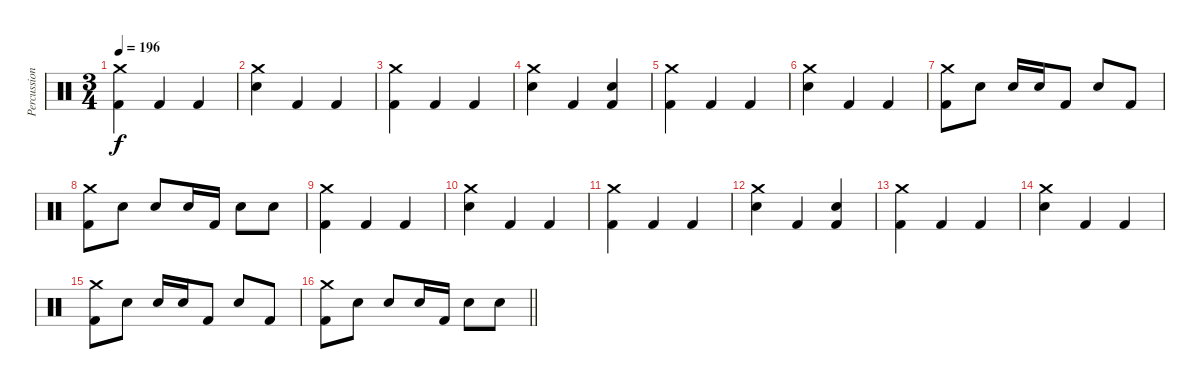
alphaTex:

\track ("Percussion" "Percussion") {instrument percussion}
\staff {score}
\articulation defaults
\ts (3 4)
\tempo 196
\clef neutral
\ks c
("Crash medium (hit)" "Kick (hit) 2").4{dy f} "Kick (hit) 2".4 "Kick (hit) 2".4 |
("Crash medium (hit)" "Electric Snare (hit)").4 "Kick (hit) 2".4 "Kick (hit) 2".4 |
("Crash medium (hit)" "Kick (hit) 2").4 "Kick (hit) 2".4 "Kick (hit) 2".4 |
("Crash medium (hit)" "Electric Snare (hit)").4 "Kick (hit) 2".4 ("Electric Snare (hit)" "Kick (hit) 2").4 |
("Crash medium (hit)" "Kick (hit) 2").4 "Kick (hit) 2".4 "Kick (hit) 2".4 |
("Crash medium (hit)" "Electric Snare (hit)").4 "Kick (hit) 2".4 "Kick (hit) 2".4 |
("Crash medium (hit)" "Kick (hit) 2").8 "Electric Snare (hit)".8 "Electric Snare (hit)".16 "Electric Snare (hit)".16 "Kick (hit) 2".8 "Electric Snare (hit)".8 "Kick (hit) 2".8 |
("Crash medium (hit)" "Kick (hit) 2").8 "Electric Snare (hit)".8 "Electric Snare (hit)".8 "Electric Snare (hit)".16 "Kick (hit) 2".16 "Electric Snare (hit)".8 "Electric Snare (hit)".8 |
("Crash medium (hit)" "Kick (hit) 2").4 "Kick (hit) 2".4 "Kick (hit) 2".4 |
("Crash medium (hit)" "Electric Snare (hit)").4 "Kick (hit) 2".4 "Kick (hit) 2".4 |
("Crash medium (hit)" "Kick (hit) 2").4 "Kick (hit) 2".4 "Kick (hit) 2".4 |
("Crash medium (hit)" "Electric Snare (hit)").4 "Kick (hit) 2".4 ("Electric Snare (hit)" "Kick (hit) 2").4 |
("Crash medium (hit)" "Kick (hit) 2").4 "Kick (hit) 2".4 "Kick (hit) 2".4 |
("Crash medium (hit)" "Electric Snare (hit)").4 "Kick (hit) 2".4 "Kick (hit) 2".4 |
("Crash medium (hit)" "Kick (hit) 2").8 "Electric Snare (hit)".8 "Electric Snare (hit)".16 "Electric Snare (hit)".16 "Kick (hit) 2".8 "Electric Snare (hit)".8 "Kick (hit) 2".8 |
\barLineRight lightlight
("Crash medium (hit)" "Kick (hit) 2").8 "Electric Snare (hit)".8 "Electric Snare (hit)".8 "Electric Snare (hit)".16 "Kick (hit) 2".16 "Electric Snare (hit)".8 "Electric Snare (hit)".8
